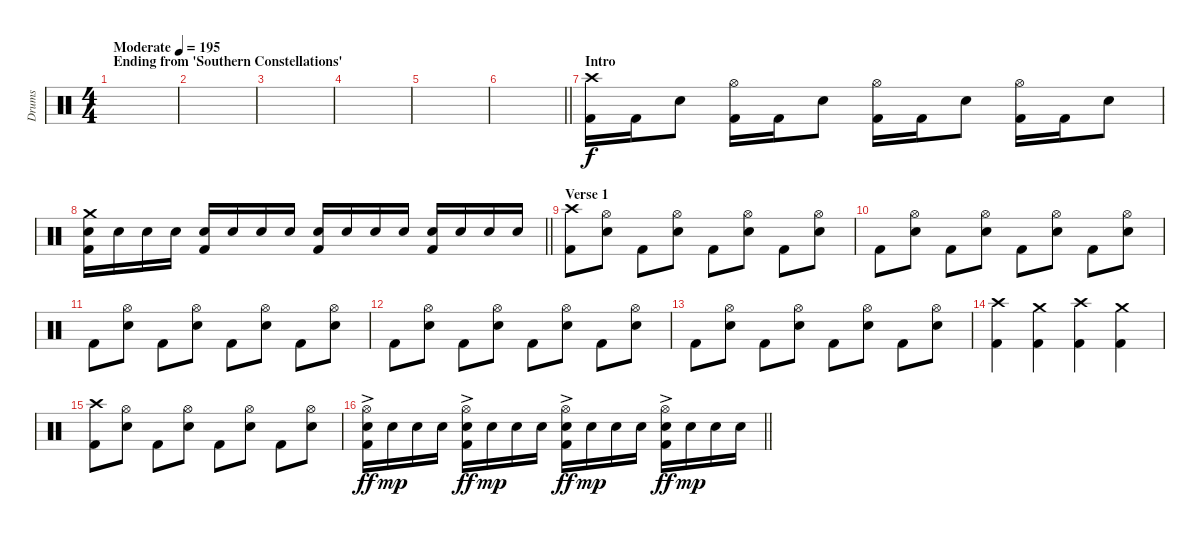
\track ("Drums" "Drums") {instrument percussion}
\staff {score}
\articulation defaults
\ts (4 4)
\section ("" "Ending from 'Southern Constellations'")
\tempo (195 "Moderate")
\clef neutral
\ks c
|
|
|
|
|
\barLineRight lightlight
|
\section ("" "Intro")
("Crash high (hit)" "Kick (hit) 2").16 "Kick (hit) 2".16 "Snare (hit) 2".8 ("Hi-Hat (open)" "Kick (hit) 2").16 "Kick (hit) 2".16 "Snare (hit) 2".8 ("Hi-Hat (open)" "Kick (hit) 2").16 "Kick (hit) 2".16 "Snare (hit) 2".8 ("Hi-Hat (open)" "Kick (hit) 2").16 "Kick (hit) 2".16 "Snare (hit) 2".8 |
\barLineRight lightlight
("Crash medium (hit)" "Snare (hit) 2" "Kick (hit) 2").16 "Snare (hit) 2".16 "Snare (hit) 2".16 "Snare (hit) 2".16 ("Snare (hit) 2" "Kick (hit) 2").16 "Snare (hit) 2".16 "Snare (hit) 2".16 "Snare (hit) 2".16 ("Snare (hit) 2" "Kick (hit) 2").16 "Snare (hit) 2".16 "Snare (hit) 2".16 "Snare (hit) 2".16 ("Snare (hit) 2" "Kick (hit) 2").16 "Snare (hit) 2".16 "Snare (hit) 2".16 "Snare (hit) 2".16 |
\section ("" "Verse 1")
("Crash high (hit)" "Kick (hit) 2").8 ("Hi-Hat (open)" "Snare (hit) 2").8 "Kick (hit) 2".8 ("Hi-Hat (open)" "Snare (hit) 2").8 "Kick (hit) 2".8 ("Hi-Hat (open)" "Snare (hit) 2").8 "Kick (hit) 2".8 ("Hi-Hat (open)" "Snare (hit) 2").8 |
"Kick (hit) 2".8 ("Hi-Hat (open)" "Snare (hit) 2").8 "Kick (hit) 2".8 ("Hi-Hat (open)" "Snare (hit) 2").8 "Kick (hit) 2".8 ("Hi-Hat (open)" "Snare (hit) 2").8 "Kick (hit) 2".8 ("Hi-Hat (open)" "Snare (hit) 2").8 |
"Kick (hit) 2".8 ("Hi-Hat (open)" "Snare (hit) 2").8 "Kick (hit) 2".8 ("Hi-Hat (open)" "Snare (hit) 2").8 "Kick (hit) 2".8 ("Hi-Hat (open)" "Snare (hit) 2").8 "Kick (hit) 2".8 ("Hi-Hat (open)" "Snare (hit) 2").8 |
"Kick (hit) 2".8 ("Hi-Hat (open)" "Snare (hit) 2").8 "Kick (hit) 2".8 ("Hi-Hat (open)" "Snare (hit) 2").8 "Kick (hit) 2".8 ("Hi-Hat (open)" "Snare (hit) 2").8 "Kick (hit) 2".8 ("Hi-Hat (open)" "Snare (hit) 2").8 |
"Kick (hit) 2".8 ("Hi-Hat (open)" "Snare (hit) 2").8 "Kick (hit) 2".8 ("Hi-Hat (open)" "Snare (hit) 2").8 "Kick (hit) 2".8 ("Hi-Hat (open)" "Snare (hit) 2").8 "Kick (hit) 2".8 ("Hi-Hat (open)" "Snare (hit) 2").8 |
("Crash high (hit)" "Kick (hit) 2").4 ("Crash medium (hit)" "Kick (hit) 2").4 ("Crash high (hit)" "Kick (hit) 2").4 ("Crash medium (hit)" "Kick (hit) 2").4 |
("Crash high (hit)" "Kick (hit) 2").8 ("Hi-Hat (open)" "Snare (hit) 2").8 "Kick (hit) 2".8 ("Hi-Hat (open)" "Snare (hit) 2").8 "Kick (hit) 2".8 ("Hi-Hat (open)" "Snare (hit) 2").8 "Kick (hit) 2".8 ("Hi-Hat (open)" "Snare (hit) 2").8 |
\barLineRight lightlight
("Hi-Hat (open)" "Snare (hit) 2"{ac} "Kick (hit) 2").16{dy ff} "Snare (hit) 2".16{dy mp} "Snare (hit) 2".16 "Snare (hit) 2".16 ("Hi-Hat (open)" "Snare (hit) 2"{ac} "Kick (hit) 2").16{dy ff} "Snare (hit) 2".16{dy mp} "Snare (hit) 2".16 "Snare (hit) 2".16 ("Hi-Hat (open)" "Snare (hit) 2"{ac} "Kick (hit) 2").16{dy ff} "Snare (hit) 2".16{dy mp} "Snare (hit) 2".16 "Snare (hit) 2".16 ("Hi-Hat (open)" "Snare (hit) 2"{ac} "Kick (hit) 2").16{dy ff} "Snare (hit) 2".16{dy mp} "Snare (hit) 2".16 "Snare (hit) 2".16
